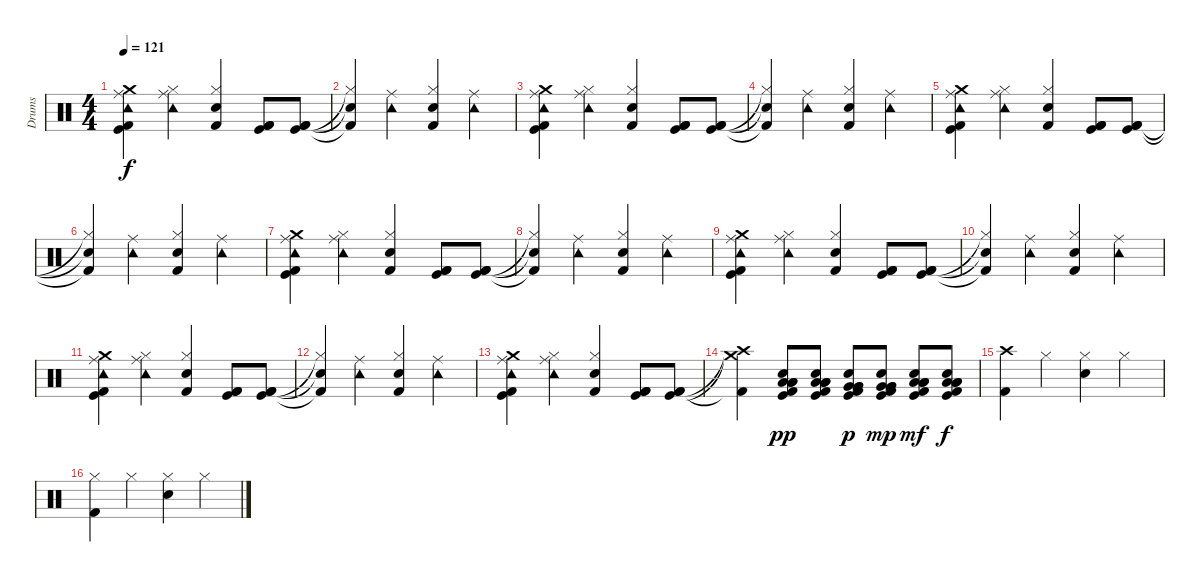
\track ("Drums" "Drums") {instrument percussion}
\staff {score}
\articulation defaults
\ts (4 4)
\tempo 121
\clef neutral
\ks c
("Ride (middle)" "Kick (hit)" "Crash medium (hit)" "Kick (hit) 2" "Tambourine (hit)").4{dy f} ("Tambourine (hit)" "Hi-Hat (closed)" "Ride (middle)").4 ("Hi-Hat (closed)" "Snare (hit) 2" "Kick (hit) 2").4 ("Kick (hit) 2" "Kick (hit)" "Kick (hit) 2").8 ("Kick (hit) 2" "Kick (hit)" "Kick (hit) 2").8 |
("Hi-Hat (closed)"{t} "Kick (hit) 2"{t} "Snare (hit)"{t}).4 ("Ride (middle)" "Tambourine (hit)").4 ("Hi-Hat (closed)" "Snare (hit) 2" "Kick (hit) 2").4 ("Ride (middle)" "Tambourine (hit)").4 |
("Ride (middle)" "Kick (hit)" "Crash medium (hit)" "Kick (hit) 2" "Tambourine (hit)").4 ("Tambourine (hit)" "Hi-Hat (closed)" "Ride (middle)").4 ("Hi-Hat (closed)" "Snare (hit) 2" "Kick (hit) 2").4 ("Kick (hit) 2" "Kick (hit)" "Kick (hit) 2").8 ("Kick (hit) 2" "Kick (hit)" "Kick (hit) 2").8 |
("Hi-Hat (closed)"{t} "Kick (hit) 2"{t} "Snare (hit)"{t}).4 ("Ride (middle)" "Tambourine (hit)").4 ("Hi-Hat (closed)" "Snare (hit) 2" "Kick (hit) 2").4 ("Ride (middle)" "Tambourine (hit)").4 |
("Ride (middle)" "Kick (hit)" "Crash medium (hit)" "Kick (hit) 2" "Tambourine (hit)").4 ("Tambourine (hit)" "Hi-Hat (closed)" "Ride (middle)").4 ("Hi-Hat (closed)" "Snare (hit) 2" "Kick (hit) 2").4 ("Kick (hit) 2" "Kick (hit)" "Kick (hit) 2").8 ("Kick (hit) 2" "Kick (hit)" "Kick (hit) 2").8 |
("Hi-Hat (closed)"{t} "Kick (hit) 2"{t} "Snare (hit)"{t}).4 ("Ride (middle)" "Tambourine (hit)").4 ("Hi-Hat (closed)" "Snare (hit) 2" "Kick (hit) 2").4 ("Ride (middle)" "Tambourine (hit)").4 |
("Ride (middle)" "Kick (hit)" "Crash medium (hit)" "Kick (hit) 2" "Tambourine (hit)").4 ("Tambourine (hit)" "Hi-Hat (closed)" "Ride (middle)").4 ("Hi-Hat (closed)" "Snare (hit) 2" "Kick (hit) 2").4 ("Kick (hit) 2" "Kick (hit)" "Kick (hit) 2").8 ("Kick (hit) 2" "Kick (hit)" "Kick (hit) 2").8 |
("Hi-Hat (closed)"{t} "Kick (hit) 2"{t} "Snare (hit)"{t}).4 ("Ride (middle)" "Tambourine (hit)").4 ("Hi-Hat (closed)" "Snare (hit) 2" "Kick (hit) 2").4 ("Ride (middle)" "Tambourine (hit)").4 |
("Ride (middle)" "Kick (hit)" "Crash medium (hit)" "Kick (hit) 2" "Tambourine (hit)").4 ("Tambourine (hit)" "Hi-Hat (closed)" "Ride (middle)").4 ("Hi-Hat (closed)" "Snare (hit) 2" "Kick (hit) 2").4 ("Kick (hit) 2" "Kick (hit)" "Kick (hit) 2").8 ("Kick (hit) 2" "Kick (hit)" "Kick (hit) 2").8 |
("Hi-Hat (closed)"{t} "Kick (hit) 2"{t} "Snare (hit)"{t}).4 ("Ride (middle)" "Tambourine (hit)").4 ("Hi-Hat (closed)" "Snare (hit) 2" "Kick (hit) 2").4 ("Ride (middle)" "Tambourine (hit)").4 |
("Ride (middle)" "Kick (hit)" "Crash medium (hit)" "Kick (hit) 2" "Tambourine (hit)").4 ("Tambourine (hit)" "Hi-Hat (closed)" "Ride (middle)").4 ("Hi-Hat (closed)" "Snare (hit) 2" "Kick (hit) 2").4 ("Kick (hit) 2" "Kick (hit)" "Kick (hit) 2").8 ("Kick (hit) 2" "Kick (hit)" "Kick (hit) 2").8 |
("Hi-Hat (closed)"{t} "Kick (hit) 2"{t} "Snare (hit)"{t}).4 ("Ride (middle)" "Tambourine (hit)").4 ("Hi-Hat (closed)" "Snare (hit) 2" "Kick (hit) 2").4 ("Ride (middle)" "Tambourine (hit)").4 |
("Ride (middle)" "Kick (hit)" "Crash medium (hit)" "Kick (hit) 2" "Tambourine (hit)").4 ("Tambourine (hit)" "Hi-Hat (closed)" "Ride (middle)").4 ("Hi-Hat (closed)" "Snare (hit) 2" "Kick (hit) 2").4 ("Kick (hit) 2" "Kick (hit)" "Kick (hit) 2").8 ("Kick (hit) 2" "Kick (hit)" "Kick (hit) 2").8 |
("Crash high (hit)"{t} "Crash medium (hit)"{t} "Kick (hit) 2"{t}).4 ("Low Floor Tom (hit)" "Low Floor Tom (hit)" "Low Floor Tom (hit)" "Kick (hit) 2" "Kick (hit)" "Electric Snare (hit)").8{dy pp} ("Low Floor Tom (hit)" "Low Floor Tom (hit)" "Low Floor Tom (hit)" "Kick (hit) 2" "Kick (hit)" "Electric Snare (hit)").8 ("Very Low Tom (hit)" "Very Low Tom (hit)" "Very Low Tom (hit)" "Kick (hit) 2" "Kick (hit)" "Electric Snare (hit)").8{dy p} ("Very Low Tom (hit)" "Very Low Tom (hit)" "Very Low Tom (hit)" "Kick (hit) 2" "Kick (hit)" "Snare (hit) 2").8{dy mp} ("Low Tom (hit)" "Low Tom (hit)" "Low Tom (hit)" "Kick (hit) 2" "Kick (hit)" "Snare (hit) 2").8{dy mf} ("Low Tom (hit)" "Low Tom (hit)" "Low Tom (hit)" "Kick (hit) 2" "Kick (hit)" "Snare (hit) 2").8{dy f} |
("Crash high (hit)" "Kick (hit) 2").4 "Hi-Hat (closed)".4 ("Hi-Hat (closed)" "Electric Snare (hit)").4 "Hi-Hat (closed)".4 |
("Hi-Hat (closed)" "Kick (hit) 2").4 "Hi-Hat (closed)".4 ("Hi-Hat (closed)" "Electric Snare (hit)").4 "Hi-Hat (closed)".4
